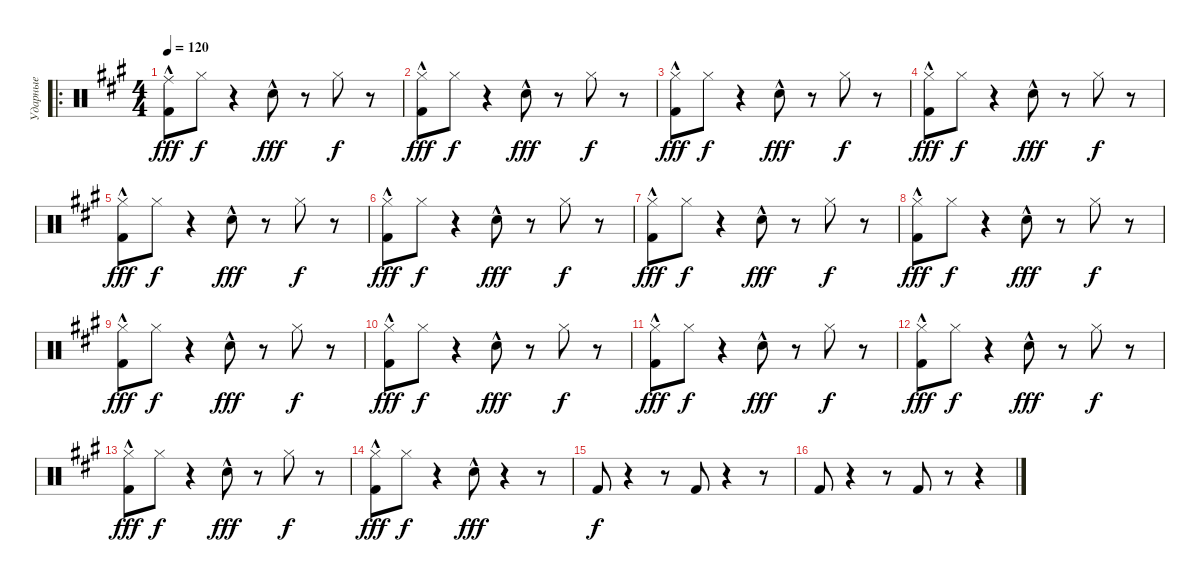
\track ("Ударные" "Ударные") {instrument percussion}
\staff {score}
\articulation defaults
\ro
\ts (4 4)
\tempo 120
\clef neutral
\ks a
("Ride (middle)"{hac} "Kick (hit) 2"{hac}).8{dy fff} "Hi-Hat (closed)".8{dy f} r.4 "Snare (hit) 2"{hac}.8{dy fff} r.8 "Hi-Hat (closed)".8{dy f} r.8 |
("Hi-Hat (closed)"{hac} "Kick (hit) 2"{hac}).8{dy fff} "Hi-Hat (closed)".8{dy f} r.4 "Snare (hit) 2"{hac}.8{dy fff} r.8 "Hi-Hat (closed)".8{dy f} r.8 |
("Hi-Hat (closed)"{hac} "Kick (hit) 2"{hac}).8{dy fff} "Hi-Hat (closed)".8{dy f} r.4 "Snare (hit) 2"{hac}.8{dy fff} r.8 "Hi-Hat (closed)".8{dy f} r.8 |
("Hi-Hat (closed)"{hac} "Kick (hit) 2"{hac}).8{dy fff} "Hi-Hat (closed)".8{dy f} r.4 "Snare (hit) 2"{hac}.8{dy fff} r.8 "Hi-Hat (closed)".8{dy f} r.8 |
("Hi-Hat (closed)"{hac} "Kick (hit) 2"{hac}).8{dy fff} "Hi-Hat (closed)".8{dy f} r.4 "Snare (hit) 2"{hac}.8{dy fff} r.8 "Hi-Hat (closed)".8{dy f} r.8 |
("Hi-Hat (closed)"{hac} "Kick (hit) 2"{hac}).8{dy fff} "Hi-Hat (closed)".8{dy f} r.4 "Snare (hit) 2"{hac}.8{dy fff} r.8 "Hi-Hat (closed)".8{dy f} r.8 |
("Hi-Hat (closed)"{hac} "Kick (hit) 2"{hac}).8{dy fff} "Hi-Hat (closed)".8{dy f} r.4 "Snare (hit) 2"{hac}.8{dy fff} r.8 "Hi-Hat (closed)".8{dy f} r.8 |
("Hi-Hat (closed)"{hac} "Kick (hit) 2"{hac}).8{dy fff} "Hi-Hat (closed)".8{dy f} r.4 "Snare (hit) 2"{hac}.8{dy fff} r.8 "Hi-Hat (closed)".8{dy f} r.8 |
("Hi-Hat (closed)"{hac} "Kick (hit) 2"{hac}).8{dy fff} "Hi-Hat (closed)".8{dy f} r.4 "Snare (hit) 2"{hac}.8{dy fff} r.8 "Hi-Hat (closed)".8{dy f} r.8 |
("Hi-Hat (closed)"{hac} "Kick (hit) 2"{hac}).8{dy fff} "Hi-Hat (closed)".8{dy f} r.4 "Snare (hit) 2"{hac}.8{dy fff} r.8 "Hi-Hat (closed)".8{dy f} r.8 |
("Hi-Hat (closed)"{hac} "Kick (hit) 2"{hac}).8{dy fff} "Hi-Hat (closed)".8{dy f} r.4 "Snare (hit) 2"{hac}.8{dy fff} r.8 "Hi-Hat (closed)".8{dy f} r.8 |
("Hi-Hat (closed)"{hac} "Kick (hit) 2"{hac}).8{dy fff} "Hi-Hat (closed)".8{dy f} r.4 "Snare (hit) 2"{hac}.8{dy fff} r.8 "Hi-Hat (closed)".8{dy f} r.8 |
("Hi-Hat (closed)"{hac} "Kick (hit) 2"{hac}).8{dy fff} "Hi-Hat (closed)".8{dy f} r.4 "Snare (hit) 2"{hac}.8{dy fff} r.8 "Hi-Hat (closed)".8{dy f} r.8 |
("Hi-Hat (closed)"{hac} "Kick (hit) 2"{hac}).8{dy fff} "Hi-Hat (closed)".8{dy f} r.4 "Snare (hit) 2"{hac}.8{dy fff} r.4 r.8 |
"Kick (hit) 2".8{dy f} r.4 r.8 "Kick (hit) 2".8 r.4 r.8 |
"Kick (hit) 2".8 r.4 r.8 "Kick (hit) 2".8 r.8 r.4
